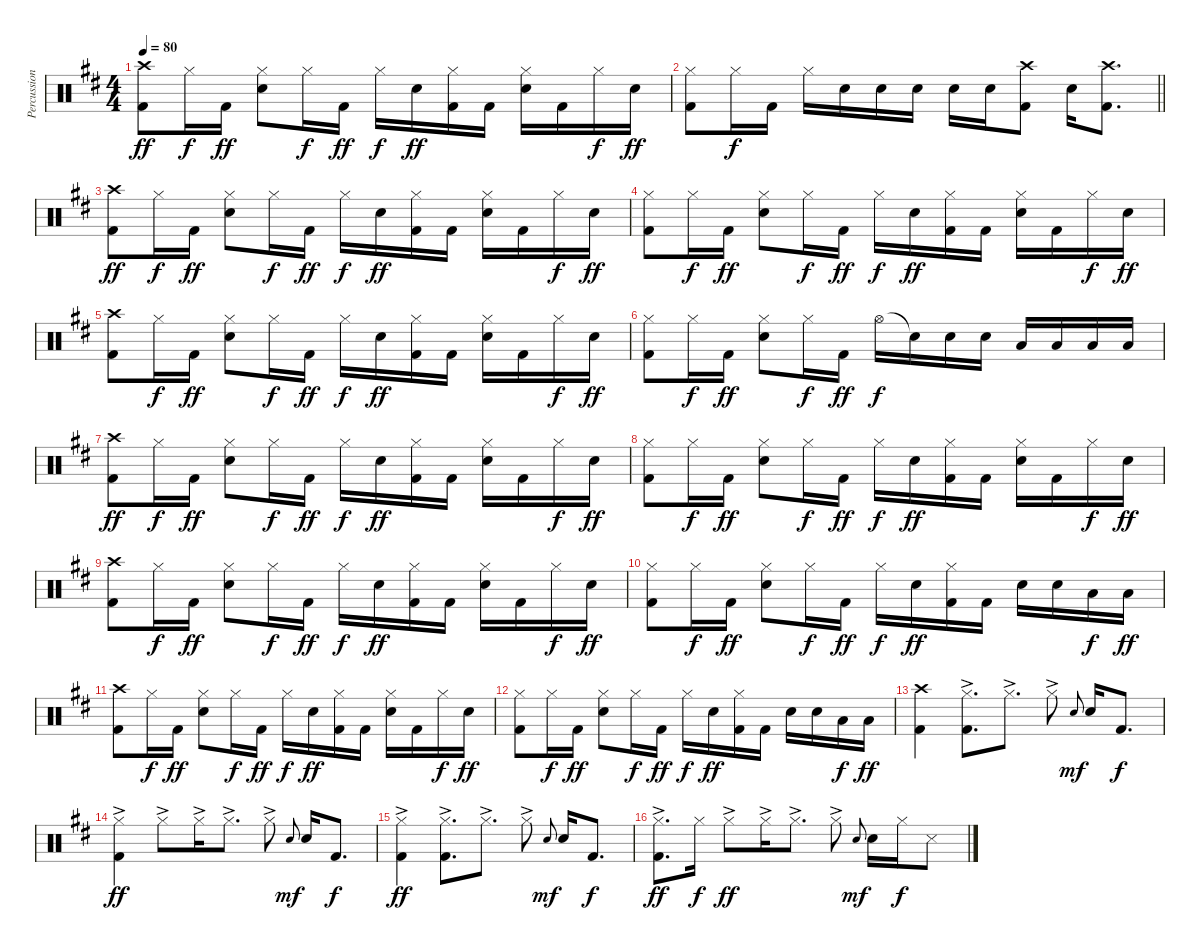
\track ("Percussion" "Percussion") {instrument percussion}
\staff {score}
\articulation defaults
\ts (4 4)
\tempo 80
\clef neutral
\ks bminor
("Crash high (hit)" "Kick (hit) 2").8{dy ff} "Hi-Hat (closed)".16{dy f} "Kick (hit) 2".16{dy ff} ("Hi-Hat (closed)" "Snare (hit) 2").8 "Hi-Hat (closed)".16{dy f} "Kick (hit) 2".16{dy ff} "Hi-Hat (closed)".16{dy f} "Snare (hit) 2".16{dy ff} ("Hi-Hat (closed)" "Kick (hit) 2").16 "Kick (hit) 2".16 ("Hi-Hat (closed)" "Snare (hit) 2").16 "Kick (hit) 2".16 "Hi-Hat (closed)".16{dy f} "Snare (hit) 2".16{dy ff} |
\barLineRight lightlight
("Hi-Hat (closed)" "Kick (hit) 2").8 "Hi-Hat (closed)".16{dy f} "Kick (hit) 2".16 "Hi-Hat (closed)".16 "Snare (hit) 2".16 "Snare (hit) 2".16 "Snare (hit) 2".16 "Snare (hit) 2".16 "Snare (hit) 2".16 ("Crash high (hit)" "Kick (hit) 2").8 "Snare (hit) 2".16 ("Crash high (hit)" "Kick (hit) 2").8{d} |
("Crash high (hit)" "Kick (hit) 2").8{dy ff} "Hi-Hat (closed)".16{dy f} "Kick (hit) 2".16{dy ff} ("Hi-Hat (closed)" "Snare (hit) 2").8 "Hi-Hat (closed)".16{dy f} "Kick (hit) 2".16{dy ff} "Hi-Hat (closed)".16{dy f} "Snare (hit) 2".16{dy ff} ("Hi-Hat (closed)" "Kick (hit) 2").16 "Kick (hit) 2".16 ("Hi-Hat (closed)" "Snare (hit) 2").16 "Kick (hit) 2".16 "Hi-Hat (closed)".16{dy f} "Snare (hit) 2".16{dy ff} |
("Hi-Hat (closed)" "Kick (hit) 2").8 "Hi-Hat (closed)".16{dy f} "Kick (hit) 2".16{dy ff} ("Hi-Hat (closed)" "Snare (hit) 2").8 "Hi-Hat (closed)".16{dy f} "Kick (hit) 2".16{dy ff} "Hi-Hat (closed)".16{dy f} "Snare (hit) 2".16{dy ff} ("Hi-Hat (closed)" "Kick (hit) 2").16 "Kick (hit) 2".16 ("Hi-Hat (closed)" "Snare (hit) 2").16 "Kick (hit) 2".16 "Hi-Hat (closed)".16{dy f} "Snare (hit) 2".16{dy ff} |
("Crash high (hit)" "Kick (hit) 2").8 "Hi-Hat (closed)".16{dy f} "Kick (hit) 2".16{dy ff} ("Hi-Hat (closed)" "Snare (hit) 2").8 "Hi-Hat (closed)".16{dy f} "Kick (hit) 2".16{dy ff} "Hi-Hat (closed)".16{dy f} "Snare (hit) 2".16{dy ff} ("Hi-Hat (closed)" "Kick (hit) 2").16 "Kick (hit) 2".16 ("Hi-Hat (closed)" "Snare (hit) 2").16 "Kick (hit) 2".16 "Hi-Hat (closed)".16{dy f} "Snare (hit) 2".16{dy ff} |
("Hi-Hat (closed)" "Kick (hit) 2").8 "Hi-Hat (closed)".16{dy f} "Kick (hit) 2".16{dy ff} ("Hi-Hat (closed)" "Snare (hit) 2").8 "Hi-Hat (closed)".16{dy f} "Kick (hit) 2".16{dy ff} "Hi-Hat (open)".16{dy f} "Snare (hit)"{t}.16 "Snare (hit) 2".16 "Snare (hit) 2".16 "Low Tom (hit)".16 "Low Tom (hit)".16 "Low Floor Tom (hit)".16 "Low Floor Tom (hit)".16 |
("Crash high (hit)" "Kick (hit) 2").8{dy ff} "Hi-Hat (closed)".16{dy f} "Kick (hit) 2".16{dy ff} ("Hi-Hat (closed)" "Snare (hit) 2").8 "Hi-Hat (closed)".16{dy f} "Kick (hit) 2".16{dy ff} "Hi-Hat (closed)".16{dy f} "Snare (hit) 2".16{dy ff} ("Hi-Hat (closed)" "Kick (hit) 2").16 "Kick (hit) 2".16 ("Hi-Hat (closed)" "Snare (hit) 2").16 "Kick (hit) 2".16 "Hi-Hat (closed)".16{dy f} "Snare (hit) 2".16{dy ff} |
("Hi-Hat (closed)" "Kick (hit) 2").8 "Hi-Hat (closed)".16{dy f} "Kick (hit) 2".16{dy ff} ("Hi-Hat (closed)" "Snare (hit) 2").8 "Hi-Hat (closed)".16{dy f} "Kick (hit) 2".16{dy ff} "Hi-Hat (closed)".16{dy f} "Snare (hit) 2".16{dy ff} ("Hi-Hat (closed)" "Kick (hit) 2").16 "Kick (hit) 2".16 ("Hi-Hat (closed)" "Snare (hit) 2").16 "Kick (hit) 2".16 "Hi-Hat (closed)".16{dy f} "Snare (hit) 2".16{dy ff} |
("Crash high (hit)" "Kick (hit) 2").8 "Hi-Hat (closed)".16{dy f} "Kick (hit) 2".16{dy ff} ("Hi-Hat (closed)" "Snare (hit) 2").8 "Hi-Hat (closed)".16{dy f} "Kick (hit) 2".16{dy ff} "Hi-Hat (closed)".16{dy f} "Snare (hit) 2".16{dy ff} ("Hi-Hat (closed)" "Kick (hit) 2").16 "Kick (hit) 2".16 ("Hi-Hat (closed)" "Snare (hit) 2").16 "Kick (hit) 2".16 "Hi-Hat (closed)".16{dy f} "Snare (hit) 2".16{dy ff} |
("Hi-Hat (closed)" "Kick (hit) 2").8 "Hi-Hat (closed)".16{dy f} "Kick (hit) 2".16{dy ff} ("Hi-Hat (closed)" "Snare (hit) 2").8 "Hi-Hat (closed)".16{dy f} "Kick (hit) 2".16{dy ff} "Hi-Hat (closed)".16{dy f} "Snare (hit) 2".16{dy ff} ("Hi-Hat (closed)" "Kick (hit) 2").16 "Kick (hit) 2".16 "Snare (hit) 2".16 "Snare (hit) 2".16 "Low Floor Tom (hit)".16{dy f} "Low Floor Tom (hit)".16{dy ff} |
("Crash high (hit)" "Kick (hit) 2").8 "Hi-Hat (closed)".16{dy f} "Kick (hit) 2".16{dy ff} ("Hi-Hat (closed)" "Snare (hit) 2").8 "Hi-Hat (closed)".16{dy f} "Kick (hit) 2".16{dy ff} "Hi-Hat (closed)".16{dy f} "Snare (hit) 2".16{dy ff} ("Hi-Hat (closed)" "Kick (hit) 2").16 "Kick (hit) 2".16 ("Hi-Hat (closed)" "Snare (hit) 2").16 "Kick (hit) 2".16 "Hi-Hat (closed)".16{dy f} "Snare (hit) 2".16{dy ff} |
("Hi-Hat (closed)" "Kick (hit) 2").8 "Hi-Hat (closed)".16{dy f} "Kick (hit) 2".16{dy ff} ("Hi-Hat (closed)" "Snare (hit) 2").8 "Hi-Hat (closed)".16{dy f} "Kick (hit) 2".16{dy ff} "Hi-Hat (closed)".16{dy f} "Snare (hit) 2".16{dy ff} ("Hi-Hat (closed)" "Kick (hit) 2").16 "Kick (hit) 2".16 "Snare (hit) 2".16 "Snare (hit) 2".16 "Low Floor Tom (hit)".16{dy f} "Low Floor Tom (hit)".16{dy ff} |
("Crash high (hit)" "Kick (hit) 2").4 ("Hi-Hat (closed)"{ac} "Kick (hit) 2").8{d} "Hi-Hat (closed)"{ac}.8{d} "Hi-Hat (closed)"{ac}.8 "Electric Snare (hit)".8{gr onbeat dy mf} "Electric Snare (hit)".16 "Kick (hit) 2".8{d dy f} |
("Hi-Hat (closed)"{ac} "Kick (hit) 2").4{dy ff} "Hi-Hat (closed)"{ac}.8 "Hi-Hat (closed)"{ac}.16 "Hi-Hat (closed)"{ac}.8{d} "Hi-Hat (closed)"{ac}.8 "Electric Snare (hit)".8{gr onbeat dy mf} "Electric Snare (hit)".16 "Kick (hit) 2".8{d dy f} |
("Hi-Hat (closed)"{ac} "Kick (hit) 2").4{dy ff} ("Hi-Hat (closed)"{ac} "Kick (hit) 2").8{d} "Hi-Hat (closed)"{ac}.8{d} "Hi-Hat (closed)"{ac}.8 "Electric Snare (hit)".8{gr onbeat dy mf} "Electric Snare (hit)".16 "Kick (hit) 2".8{d dy f} |
("Hi-Hat (closed)"{ac} "Kick (hit) 2").8{d dy ff} "Hi-Hat (closed)".16{dy f} "Hi-Hat (closed)"{ac}.8{dy ff} "Hi-Hat (closed)"{ac}.16 "Hi-Hat (closed)"{ac}.8{d} "Hi-Hat (closed)"{ac}.8 "Electric Snare (hit)".8{gr onbeat dy mf} "Electric Snare (hit)".16 "Hi-Hat (closed)".16{dy f} "Snare (side stick) 3".8
